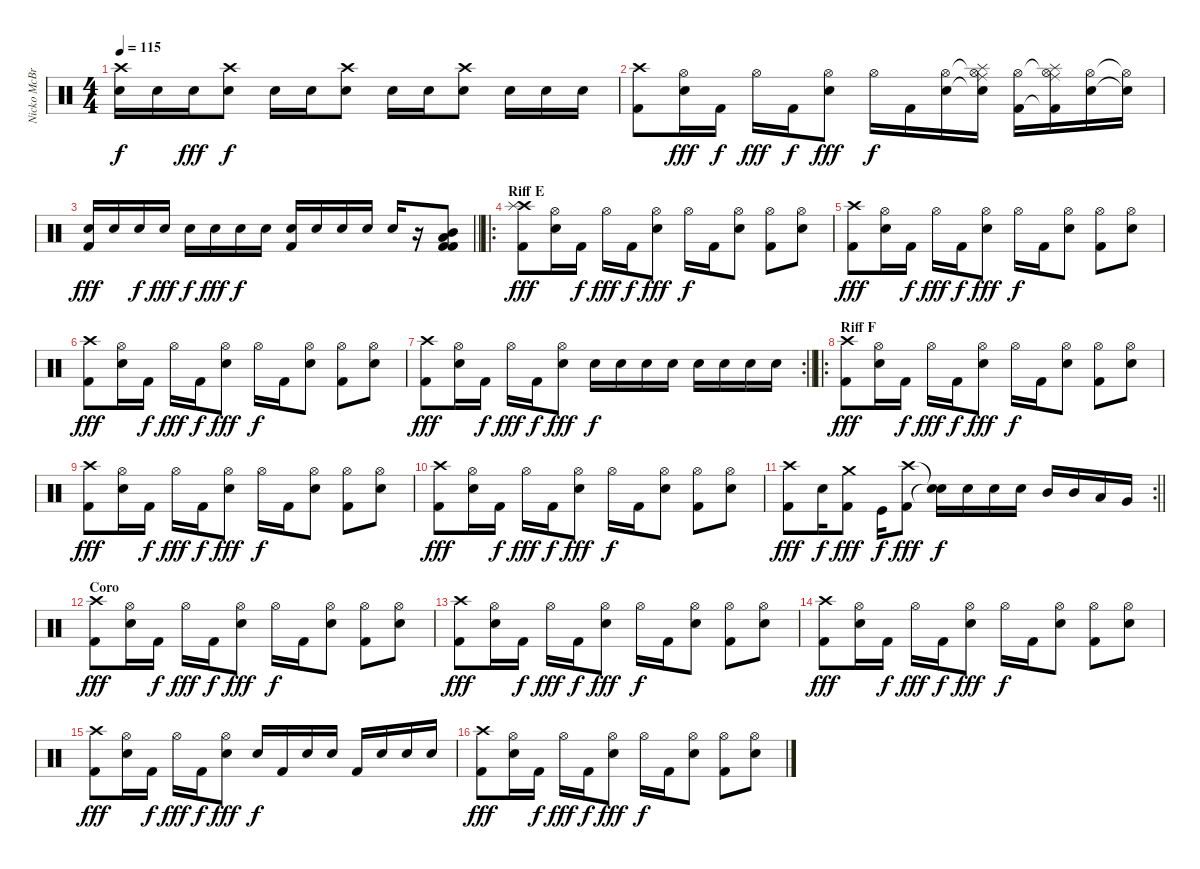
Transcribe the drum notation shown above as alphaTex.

\track ("Nicko McBrain" "Nicko McBr") {instrument percussion}
\staff {score}
\articulation defaults
\ts (4 4)
\tempo 115
\clef neutral
\ks c
("Snare (hit) 2"{t} "Crash high (hit)"{t}).16{dy f} "Snare (hit) 2".16 "Snare (hit) 2".16{dy fff} ("Snare (hit) 2" "Crash high (hit)").8{dy f} "Snare (hit) 2".16 "Snare (hit) 2".16 ("Snare (hit) 2" "Crash high (hit)").8 "Snare (hit) 2".16 "Snare (hit) 2".16 ("Snare (hit) 2" "Crash high (hit)").8 "Snare (hit) 2".16 "Snare (hit) 2".16 "Snare (hit) 2".16 |
("Kick (hit) 2" "Crash high (hit)").8 ("Snare (hit) 2" "Hi-Hat (open)").16{dy fff} "Kick (hit) 2".16{dy f} "Hi-Hat (open)".16{dy fff} "Kick (hit) 2".16{dy f} ("Snare (hit) 2" "Hi-Hat (open)").8{dy fff} "Hi-Hat (open)".16{dy f} "Kick (hit) 2".16 ("Snare (hit) 2" "Hi-Hat (open)").16 ("Snare (hit) 2"{t} "Hi-Hat (open)"{t} "Ride (middle)" "Splash (hit)").16 ("Kick (hit) 2" "Hi-Hat (open)").16 ("Kick (hit) 2"{t} "Hi-Hat (open)"{t} "Ride (middle)" "Splash (hit)").16 ("Snare (hit) 2" "Hi-Hat (open)").16 ("Snare (hit) 2"{t} "Hi-Hat (open)"{t}).16 |
\barLineRight lightlight
("Snare (hit) 2" "Kick (hit) 2").16{dy fff} "Snare (hit) 2".16 "Snare (hit) 2".16{dy f} "Snare (hit) 2".16{dy fff} "Snare (hit) 2".16{dy f} "Snare (hit) 2".16{dy fff} "Snare (hit) 2".16{dy f} "Snare (hit) 2".16 ("Snare (hit) 2" "Kick (hit) 2").16 "Snare (hit) 2".16 "Snare (hit) 2".16 "Snare (hit) 2".16 "Snare (hit) 2".16 r.16 ("Mid Tom (hit)" "Low Floor Tom (hit)" "Kick (hit) 2" "Kick (hit) 2").8 |
\ro
\section ("" "Riff E")
("Kick (hit) 2" "Crash high (hit)" "Splash (hit)").8{dy fff} ("Snare (hit) 2" "Hi-Hat (open)").16 "Kick (hit) 2".16{dy f} "Hi-Hat (open)".16{dy fff} "Kick (hit) 2".16{dy f} ("Snare (hit) 2" "Hi-Hat (open)").8{dy fff} "Hi-Hat (open)".16{dy f} "Kick (hit) 2".16 ("Snare (hit) 2" "Hi-Hat (open)").8 ("Kick (hit) 2" "Hi-Hat (open)").8 ("Snare (hit) 2" "Hi-Hat (open)").8 |
("Kick (hit) 2" "Crash high (hit)").8{dy fff} ("Snare (hit) 2" "Hi-Hat (open)").16 "Kick (hit) 2".16{dy f} "Hi-Hat (open)".16{dy fff} "Kick (hit) 2".16{dy f} ("Snare (hit) 2" "Hi-Hat (open)").8{dy fff} "Hi-Hat (open)".16{dy f} "Kick (hit) 2".16 ("Snare (hit) 2" "Hi-Hat (open)").8 ("Kick (hit) 2" "Hi-Hat (open)").8 ("Snare (hit) 2" "Hi-Hat (open)").8 |
("Kick (hit) 2" "Crash high (hit)").8{dy fff} ("Snare (hit) 2" "Hi-Hat (open)").16 "Kick (hit) 2".16{dy f} "Hi-Hat (open)".16{dy fff} "Kick (hit) 2".16{dy f} ("Snare (hit) 2" "Hi-Hat (open)").8{dy fff} "Hi-Hat (open)".16{dy f} "Kick (hit) 2".16 ("Snare (hit) 2" "Hi-Hat (open)").8 ("Kick (hit) 2" "Hi-Hat (open)").8 ("Snare (hit) 2" "Hi-Hat (open)").8 |
\rc 2
\barLineRight lightlight
("Kick (hit) 2" "Crash high (hit)").8{dy fff} ("Snare (hit) 2" "Hi-Hat (open)").16 "Kick (hit) 2".16{dy f} "Hi-Hat (open)".16{dy fff} "Kick (hit) 2".16{dy f} ("Snare (hit) 2" "Hi-Hat (open)").8{dy fff} "Snare (hit) 2".16{dy f} "Snare (hit) 2".16 "Snare (hit) 2".16 "Snare (hit) 2".16 "Snare (hit) 2".16 "Snare (hit) 2".16 "Snare (hit) 2".16 "Snare (hit) 2".16 |
\ro
\section ("" "Riff F")
("Kick (hit) 2" "Crash high (hit)").8{dy fff} ("Snare (hit) 2" "Hi-Hat (open)").16 "Kick (hit) 2".16{dy f} "Hi-Hat (open)".16{dy fff} "Kick (hit) 2".16{dy f} ("Snare (hit) 2" "Hi-Hat (open)").8{dy fff} "Hi-Hat (open)".16{dy f} "Kick (hit) 2".16 ("Snare (hit) 2" "Hi-Hat (open)").8 ("Kick (hit) 2" "Hi-Hat (open)").8 ("Snare (hit) 2" "Hi-Hat (open)").8 |
("Kick (hit) 2" "Crash high (hit)").8{dy fff} ("Snare (hit) 2" "Hi-Hat (open)").16 "Kick (hit) 2".16{dy f} "Hi-Hat (open)".16{dy fff} "Kick (hit) 2".16{dy f} ("Snare (hit) 2" "Hi-Hat (open)").8{dy fff} "Hi-Hat (open)".16{dy f} "Kick (hit) 2".16 ("Snare (hit) 2" "Hi-Hat (open)").8 ("Kick (hit) 2" "Hi-Hat (open)").8 ("Snare (hit) 2" "Hi-Hat (open)").8 |
("Kick (hit) 2" "Crash high (hit)").8{dy fff} ("Snare (hit) 2" "Hi-Hat (open)").16 "Kick (hit) 2".16{dy f} "Hi-Hat (open)".16{dy fff} "Kick (hit) 2".16{dy f} ("Snare (hit) 2" "Hi-Hat (open)").8{dy fff} "Hi-Hat (open)".16{dy f} "Kick (hit) 2".16 ("Snare (hit) 2" "Hi-Hat (open)").8 ("Kick (hit) 2" "Hi-Hat (open)").8 ("Snare (hit) 2" "Hi-Hat (open)").8 |
\rc 2
\barLineRight lightlight
("Kick (hit) 2" "Crash high (hit)").8{dy fff} "Snare (hit) 2".16{dy f} ("Kick (hit) 2" "Crash medium (hit)").8{dy fff} "Kick (hit)".16{dy f} ("Kick (hit) 2" "Crash high (hit)").8{dy fff} ("Snare (hit)"{t} "Snare (hit)"{t}).16{dy f} "Snare (hit) 2".16 "Snare (hit) 2".16 "Snare (hit) 2".16 "Mid Tom (hit)".16 "Mid Tom (hit)".16 "Low Tom (hit)".16 "Very Low Tom (hit)".16 |
\section ("" "Coro")
("Kick (hit) 2" "Crash high (hit)").8{dy fff} ("Snare (hit) 2" "Hi-Hat (open)").16 "Kick (hit) 2".16{dy f} "Hi-Hat (open)".16{dy fff} "Kick (hit) 2".16{dy f} ("Snare (hit) 2" "Hi-Hat (open)").8{dy fff} "Hi-Hat (open)".16{dy f} "Kick (hit) 2".16 ("Snare (hit) 2" "Hi-Hat (open)").8 ("Kick (hit) 2" "Hi-Hat (open)").8 ("Snare (hit) 2" "Hi-Hat (open)").8 |
("Kick (hit) 2" "Crash high (hit)").8{dy fff} ("Snare (hit) 2" "Hi-Hat (open)").16 "Kick (hit) 2".16{dy f} "Hi-Hat (open)".16{dy fff} "Kick (hit) 2".16{dy f} ("Snare (hit) 2" "Hi-Hat (open)").8{dy fff} "Hi-Hat (open)".16{dy f} "Kick (hit) 2".16 ("Snare (hit) 2" "Hi-Hat (open)").8 ("Kick (hit) 2" "Hi-Hat (open)").8 ("Snare (hit) 2" "Hi-Hat (open)").8 |
("Kick (hit) 2" "Crash high (hit)").8{dy fff} ("Snare (hit) 2" "Hi-Hat (open)").16 "Kick (hit) 2".16{dy f} "Hi-Hat (open)".16{dy fff} "Kick (hit) 2".16{dy f} ("Snare (hit) 2" "Hi-Hat (open)").8{dy fff} "Hi-Hat (open)".16{dy f} "Kick (hit) 2".16 ("Snare (hit) 2" "Hi-Hat (open)").8 ("Kick (hit) 2" "Hi-Hat (open)").8 ("Snare (hit) 2" "Hi-Hat (open)").8 |
("Kick (hit) 2" "Crash high (hit)").8{dy fff} ("Snare (hit) 2" "Hi-Hat (open)").16 "Kick (hit) 2".16{dy f} "Hi-Hat (open)".16{dy fff} "Kick (hit) 2".16{dy f} ("Snare (hit) 2" "Hi-Hat (open)").8{dy fff} "Snare (hit) 2".16{dy f} "Kick (hit) 2".16 "Snare (hit) 2".16 "Snare (hit) 2".16 "Kick (hit) 2".16 "Snare (hit) 2".16 "Snare (hit) 2".16 "Snare (hit) 2".16 |
("Kick (hit) 2" "Crash high (hit)").8{dy fff} ("Snare (hit) 2" "Hi-Hat (open)").16 "Kick (hit) 2".16{dy f} "Hi-Hat (open)".16{dy fff} "Kick (hit) 2".16{dy f} ("Snare (hit) 2" "Hi-Hat (open)").8{dy fff} "Hi-Hat (open)".16{dy f} "Kick (hit) 2".16 ("Snare (hit) 2" "Hi-Hat (open)").8 ("Kick (hit) 2" "Hi-Hat (open)").8 ("Snare (hit) 2" "Hi-Hat (open)").8
